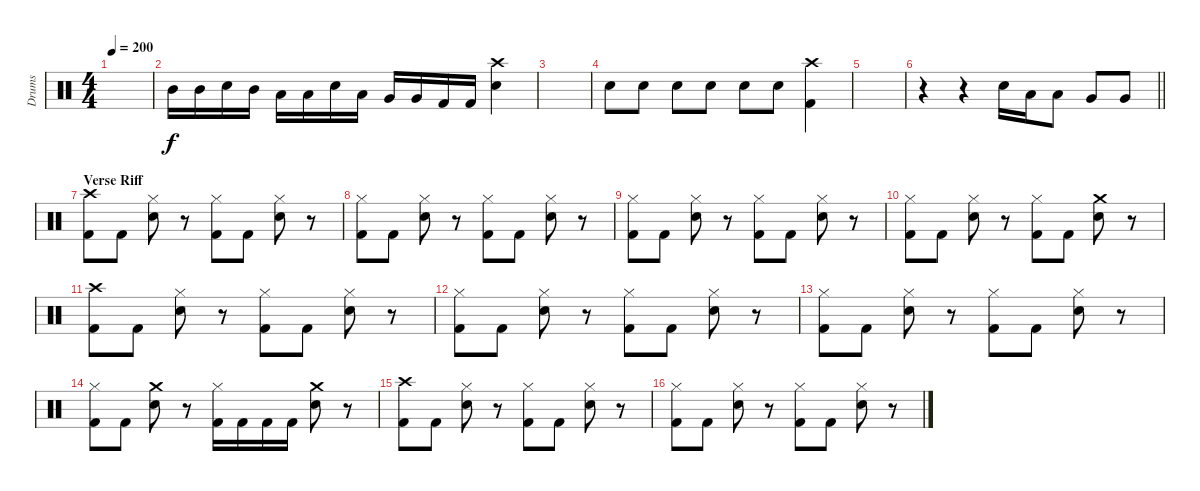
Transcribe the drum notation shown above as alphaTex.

\track ("Drums" "Drums") {instrument percussion}
\staff {score}
\articulation defaults
\ts (4 4)
\tempo 200
\clef neutral
\ks c
|
"Mid Tom (hit)".16 "Mid Tom (hit)".16 "Electric Snare (hit)".16 "Mid Tom (hit)".16 "Low Tom (hit)".16 "Low Tom (hit)".16 "Electric Snare (hit)".16 "Low Tom (hit)".16 "Very Low Tom (hit)".16 "Very Low Tom (hit)".16 "Kick (hit) 2".16 "Kick (hit) 2".16 ("Crash high (hit)" "Electric Snare (hit)").4 |
|
"Electric Snare (hit)".8 "Electric Snare (hit)".8 "Electric Snare (hit)".8 "Electric Snare (hit)".8 "Electric Snare (hit)".8 "Electric Snare (hit)".8 ("Crash high (hit)" "Kick (hit) 2").4 |
|
\barLineRight lightlight
r.4 r.4 "Electric Snare (hit)".16 "Low Tom (hit)".16 "Low Tom (hit)".8 "Very Low Tom (hit)".8 "Very Low Tom (hit)".8 |
\section ("" "Verse Riff")
("Crash high (hit)" "Kick (hit) 2").8 "Kick (hit) 2".8 ("Hi-Hat (closed)" "Electric Snare (hit)").8 r.8 ("Hi-Hat (closed)" "Kick (hit) 2").8 "Kick (hit) 2".8 ("Hi-Hat (closed)" "Electric Snare (hit)").8 r.8 |
("Hi-Hat (closed)" "Kick (hit) 2").8 "Kick (hit) 2".8 ("Hi-Hat (closed)" "Electric Snare (hit)").8 r.8 ("Hi-Hat (closed)" "Kick (hit) 2").8 "Kick (hit) 2".8 ("Hi-Hat (closed)" "Electric Snare (hit)").8 r.8 |
("Hi-Hat (closed)" "Kick (hit) 2").8 "Kick (hit) 2".8 ("Hi-Hat (closed)" "Electric Snare (hit)").8 r.8 ("Hi-Hat (closed)" "Kick (hit) 2").8 "Kick (hit) 2".8 ("Hi-Hat (closed)" "Electric Snare (hit)").8 r.8 |
("Hi-Hat (closed)" "Kick (hit) 2").8 "Kick (hit) 2".8 ("Hi-Hat (closed)" "Electric Snare (hit)").8 r.8 ("Hi-Hat (closed)" "Kick (hit) 2").8 "Kick (hit) 2".8 ("Crash medium (hit)" "Electric Snare (hit)").8 r.8 |
("Crash high (hit)" "Kick (hit) 2").8 "Kick (hit) 2".8 ("Hi-Hat (closed)" "Electric Snare (hit)").8 r.8 ("Hi-Hat (closed)" "Kick (hit) 2").8 "Kick (hit) 2".8 ("Hi-Hat (closed)" "Electric Snare (hit)").8 r.8 |
("Hi-Hat (closed)" "Kick (hit) 2").8 "Kick (hit) 2".8 ("Hi-Hat (closed)" "Electric Snare (hit)").8 r.8 ("Hi-Hat (closed)" "Kick (hit) 2").8 "Kick (hit) 2".8 ("Hi-Hat (closed)" "Electric Snare (hit)").8 r.8 |
("Hi-Hat (closed)" "Kick (hit) 2").8 "Kick (hit) 2".8 ("Hi-Hat (closed)" "Electric Snare (hit)").8 r.8 ("Hi-Hat (closed)" "Kick (hit) 2").8 "Kick (hit) 2".8 ("Hi-Hat (closed)" "Electric Snare (hit)").8 r.8 |
("Hi-Hat (closed)" "Kick (hit) 2").8 "Kick (hit) 2".8 ("Crash medium (hit)" "Electric Snare (hit)").8 r.8 ("Hi-Hat (closed)" "Kick (hit) 2").16 "Kick (hit) 2".16 "Kick (hit) 2".16 "Kick (hit) 2".16 ("Crash medium (hit)" "Electric Snare (hit)").8 r.8 |
("Crash high (hit)" "Kick (hit) 2").8 "Kick (hit) 2".8 ("Hi-Hat (closed)" "Electric Snare (hit)").8 r.8 ("Hi-Hat (closed)" "Kick (hit) 2").8 "Kick (hit) 2".8 ("Hi-Hat (closed)" "Electric Snare (hit)").8 r.8 |
("Hi-Hat (closed)" "Kick (hit) 2").8 "Kick (hit) 2".8 ("Hi-Hat (closed)" "Electric Snare (hit)").8 r.8 ("Hi-Hat (closed)" "Kick (hit) 2").8 "Kick (hit) 2".8 ("Hi-Hat (closed)" "Electric Snare (hit)").8 r.8
